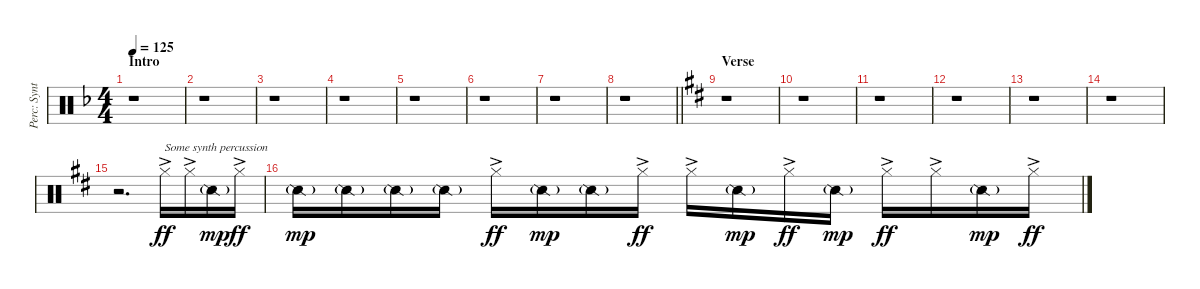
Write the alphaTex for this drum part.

\track ("Perc: Synth + Shaker + Timbales" "Perc: Synt") {instrument percussion}
\staff {score}
\articulation defaults
\ts (4 4)
\section ("" "Intro")
\tempo 125
\clef neutral
\ks dminor
r.1{dy ff} |
r.1 |
r.1 |
r.1 |
r.1 |
r.1 |
r.1 |
\barLineRight lightlight
r.1 |
\section ("" "Verse")
\ks bminor
r.1 |
r.1 |
r.1 |
r.1 |
r.1 |
r.1 |
r.2{d} "Hi-Hat (closed)"{ac}.16{txt "Some synth percussion"} "Hi-Hat (closed)"{ac}.16 "Snare (side stick) 2"{g}.16{dy mp} "Hi-Hat (closed)"{ac}.16{dy ff} |
"Snare (side stick) 2"{g}.16{dy mp} "Snare (side stick) 2"{g}.16 "Snare (side stick) 2"{g}.16 "Snare (side stick) 2"{g}.16 "Hi-Hat (closed)"{ac}.16{dy ff} "Snare (side stick) 2"{g}.16{dy mp} "Snare (side stick) 2"{g}.16 "Hi-Hat (closed)"{ac}.16{dy ff} "Hi-Hat (closed)"{ac}.16 "Snare (side stick) 2"{g}.16{dy mp} "Hi-Hat (closed)"{ac}.16{dy ff} "Snare (side stick) 2"{g}.16{dy mp} "Hi-Hat (closed)"{ac}.16{dy ff} "Hi-Hat (closed)"{ac}.16 "Snare (side stick) 2"{g}.16{dy mp} "Hi-Hat (closed)"{ac}.16{dy ff}
